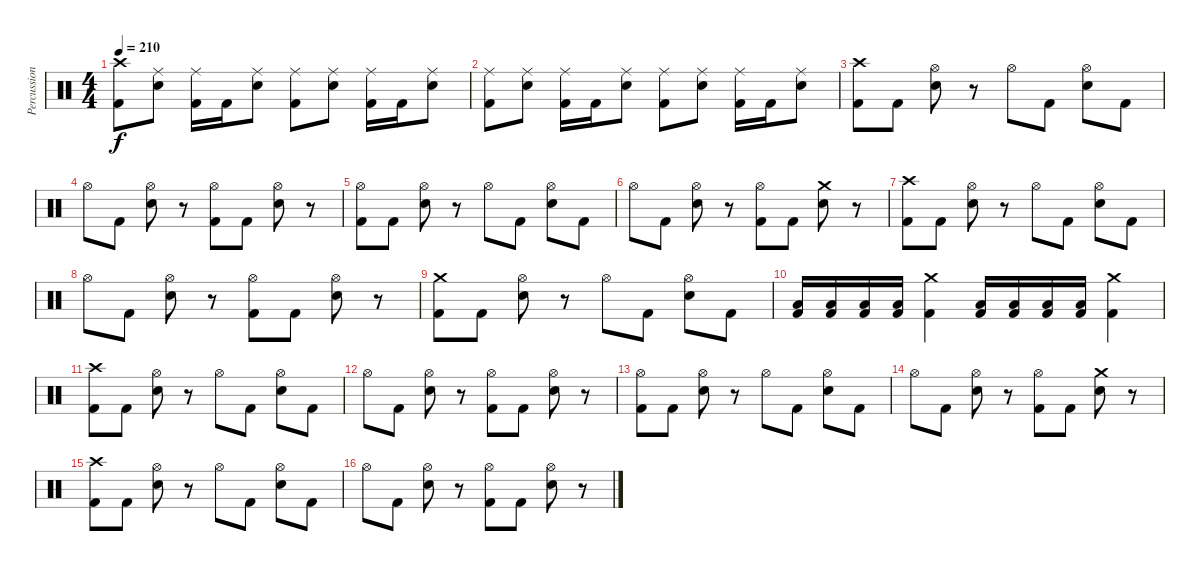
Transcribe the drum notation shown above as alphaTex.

\track ("Percussion" "Percussion") {instrument percussion}
\staff {score}
\articulation defaults
\ts (4 4)
\tempo 210
\clef neutral
\ks c
("Crash high (hit)" "Kick (hit) 2").8{dy f} ("Ride (middle)" "Electric Snare (hit)").8 ("Ride (middle)" "Kick (hit) 2").16 "Kick (hit) 2".16 ("Ride (middle)" "Electric Snare (hit)").8 ("Ride (middle)" "Kick (hit) 2").8 ("Ride (middle)" "Electric Snare (hit)").8 ("Ride (middle)" "Kick (hit) 2").16 "Kick (hit) 2".16 ("Ride (middle)" "Electric Snare (hit)").8 |
("Ride (middle)" "Kick (hit) 2").8 ("Ride (middle)" "Electric Snare (hit)").8 ("Ride (middle)" "Kick (hit) 2").16 "Kick (hit) 2".16 ("Ride (middle)" "Electric Snare (hit)").8 ("Ride (middle)" "Kick (hit) 2").8 ("Ride (middle)" "Electric Snare (hit)").8 ("Ride (middle)" "Kick (hit) 2").16 "Kick (hit) 2".16 ("Ride (middle)" "Electric Snare (hit)").8 |
("Crash high (hit)" "Kick (hit) 2").8 "Kick (hit) 2".8 ("Hi-Hat (open)" "Electric Snare (hit)").8 r.8 "Hi-Hat (open)".8 "Kick (hit) 2".8 ("Hi-Hat (open)" "Electric Snare (hit)").8 "Kick (hit) 2".8 |
"Hi-Hat (open)".8 "Kick (hit) 2".8 ("Hi-Hat (open)" "Electric Snare (hit)").8 r.8 ("Hi-Hat (open)" "Kick (hit) 2").8 "Kick (hit) 2".8 ("Hi-Hat (open)" "Electric Snare (hit)").8 r.8 |
("Hi-Hat (open)" "Kick (hit) 2").8 "Kick (hit) 2".8 ("Hi-Hat (open)" "Electric Snare (hit)").8 r.8 "Hi-Hat (open)".8 "Kick (hit) 2".8 ("Hi-Hat (open)" "Electric Snare (hit)").8 "Kick (hit) 2".8 |
"Hi-Hat (open)".8 "Kick (hit) 2".8 ("Hi-Hat (open)" "Electric Snare (hit)").8 r.8 ("Hi-Hat (open)" "Kick (hit) 2").8 "Kick (hit) 2".8 ("Crash medium (hit)" "Electric Snare (hit)").8 r.8 |
("Crash high (hit)" "Kick (hit) 2").8 "Kick (hit) 2".8 ("Hi-Hat (open)" "Electric Snare (hit)").8 r.8 "Hi-Hat (open)".8 "Kick (hit) 2".8 ("Hi-Hat (open)" "Electric Snare (hit)").8 "Kick (hit) 2".8 |
"Hi-Hat (open)".8 "Kick (hit) 2".8 ("Hi-Hat (open)" "Electric Snare (hit)").8 r.8 ("Hi-Hat (open)" "Kick (hit) 2").8 "Kick (hit) 2".8 ("Hi-Hat (open)" "Electric Snare (hit)").8 r.8 |
("Crash medium (hit)" "Kick (hit) 2").8 "Kick (hit) 2".8 ("Hi-Hat (open)" "Electric Snare (hit)").8 r.8 "Hi-Hat (open)".8 "Kick (hit) 2".8 ("Hi-Hat (open)" "Electric Snare (hit)").8 "Kick (hit) 2".8 |
("Low Tom (hit)" "Kick (hit) 2").16 ("Low Tom (hit)" "Kick (hit) 2").16 ("Low Tom (hit)" "Kick (hit) 2").16 ("Low Tom (hit)" "Kick (hit) 2").16 ("Crash medium (hit)" "Kick (hit) 2").4 ("Low Tom (hit)" "Kick (hit) 2").16 ("Low Tom (hit)" "Kick (hit) 2").16 ("Low Tom (hit)" "Kick (hit) 2").16 ("Low Tom (hit)" "Kick (hit) 2").16 ("Crash medium (hit)" "Kick (hit) 2").4 |
("Crash high (hit)" "Kick (hit) 2").8 "Kick (hit) 2".8 ("Hi-Hat (open)" "Electric Snare (hit)").8 r.8 "Hi-Hat (open)".8 "Kick (hit) 2".8 ("Hi-Hat (open)" "Electric Snare (hit)").8 "Kick (hit) 2".8 |
"Hi-Hat (open)".8 "Kick (hit) 2".8 ("Hi-Hat (open)" "Electric Snare (hit)").8 r.8 ("Hi-Hat (open)" "Kick (hit) 2").8 "Kick (hit) 2".8 ("Hi-Hat (open)" "Electric Snare (hit)").8 r.8 |
("Hi-Hat (open)" "Kick (hit) 2").8 "Kick (hit) 2".8 ("Hi-Hat (open)" "Electric Snare (hit)").8 r.8 "Hi-Hat (open)".8 "Kick (hit) 2".8 ("Hi-Hat (open)" "Electric Snare (hit)").8 "Kick (hit) 2".8 |
"Hi-Hat (open)".8 "Kick (hit) 2".8 ("Hi-Hat (open)" "Electric Snare (hit)").8 r.8 ("Hi-Hat (open)" "Kick (hit) 2").8 "Kick (hit) 2".8 ("Crash medium (hit)" "Electric Snare (hit)").8 r.8 |
("Crash high (hit)" "Kick (hit) 2").8 "Kick (hit) 2".8 ("Hi-Hat (open)" "Electric Snare (hit)").8 r.8 "Hi-Hat (open)".8 "Kick (hit) 2".8 ("Hi-Hat (open)" "Electric Snare (hit)").8 "Kick (hit) 2".8 |
"Hi-Hat (open)".8 "Kick (hit) 2".8 ("Hi-Hat (open)" "Electric Snare (hit)").8 r.8 ("Hi-Hat (open)" "Kick (hit) 2").8 "Kick (hit) 2".8 ("Hi-Hat (open)" "Electric Snare (hit)").8 r.8
